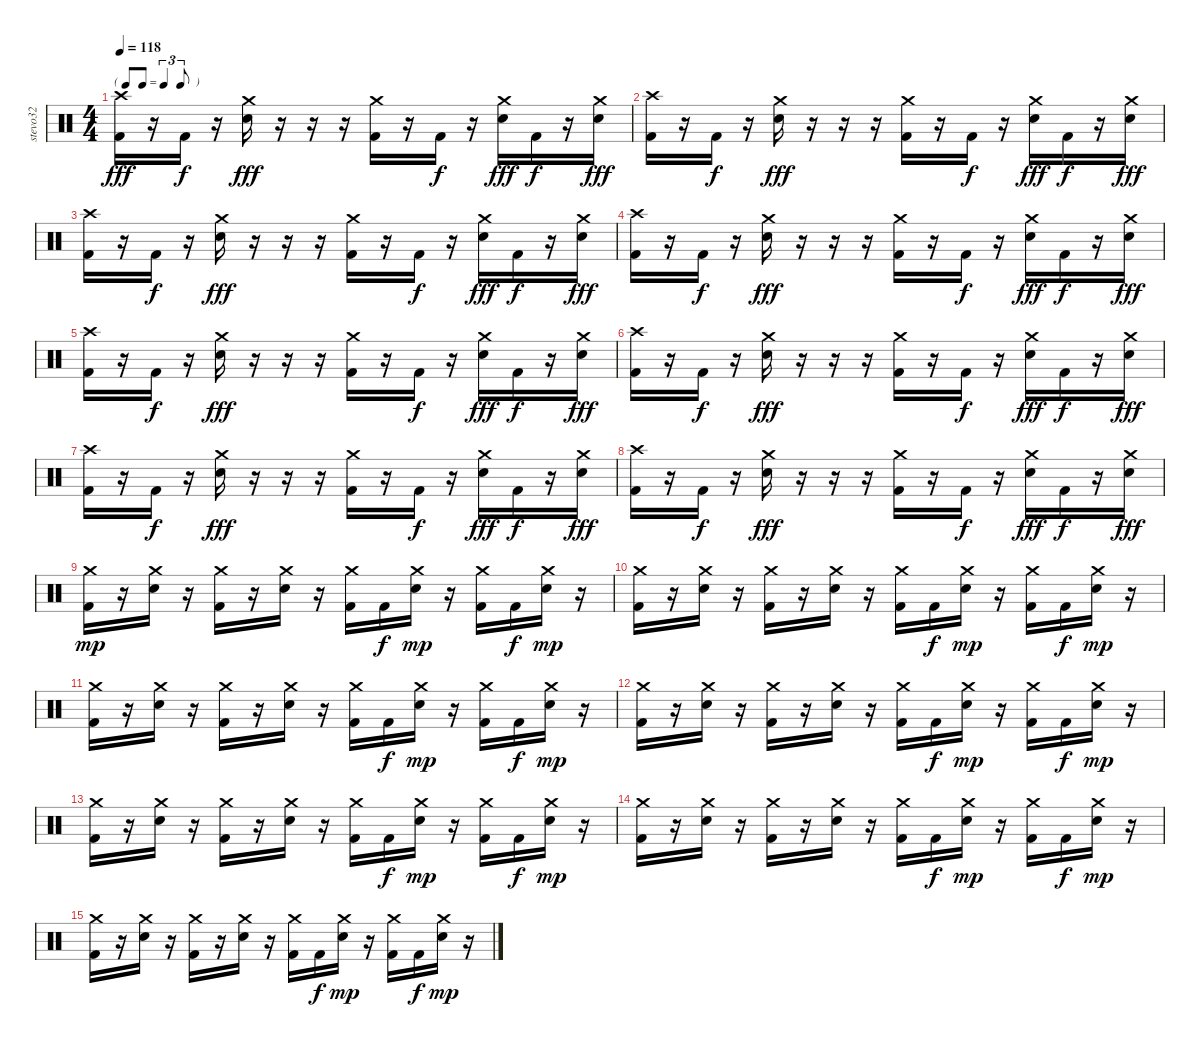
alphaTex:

\track ("stevo32" "stevo32") {instrument percussion}
\staff {score}
\articulation defaults
\ts (4 4)
\tf triplet8th
\tempo 118
\clef neutral
\ks c
("Crash high (hit)" "Kick (hit) 2").16{dy fff} r.16 "Kick (hit) 2".16{dy f} r.16 ("Crash medium (hit)" "Electric Snare (hit)").16{dy fff} r.16 r.16 r.16 ("Crash medium (hit)" "Kick (hit) 2").16 r.16 "Kick (hit) 2".16{dy f} r.16 ("Crash medium (hit)" "Electric Snare (hit)").16{dy fff} "Kick (hit) 2".16{dy f} r.16 ("Crash medium (hit)" "Electric Snare (hit)").16{dy fff} |
("Crash high (hit)" "Kick (hit) 2").16 r.16 "Kick (hit) 2".16{dy f} r.16 ("Crash medium (hit)" "Electric Snare (hit)").16{dy fff} r.16 r.16 r.16 ("Crash medium (hit)" "Kick (hit) 2").16 r.16 "Kick (hit) 2".16{dy f} r.16 ("Crash medium (hit)" "Electric Snare (hit)").16{dy fff} "Kick (hit) 2".16{dy f} r.16 ("Crash medium (hit)" "Electric Snare (hit)").16{dy fff} |
("Crash high (hit)" "Kick (hit) 2").16 r.16 "Kick (hit) 2".16{dy f} r.16 ("Crash medium (hit)" "Electric Snare (hit)").16{dy fff} r.16 r.16 r.16 ("Crash medium (hit)" "Kick (hit) 2").16 r.16 "Kick (hit) 2".16{dy f} r.16 ("Crash medium (hit)" "Electric Snare (hit)").16{dy fff} "Kick (hit) 2".16{dy f} r.16 ("Crash medium (hit)" "Electric Snare (hit)").16{dy fff} |
("Crash high (hit)" "Kick (hit) 2").16 r.16 "Kick (hit) 2".16{dy f} r.16 ("Crash medium (hit)" "Electric Snare (hit)").16{dy fff} r.16 r.16 r.16 ("Crash medium (hit)" "Kick (hit) 2").16 r.16 "Kick (hit) 2".16{dy f} r.16 ("Crash medium (hit)" "Electric Snare (hit)").16{dy fff} "Kick (hit) 2".16{dy f} r.16 ("Crash medium (hit)" "Electric Snare (hit)").16{dy fff} |
("Crash high (hit)" "Kick (hit) 2").16 r.16 "Kick (hit) 2".16{dy f} r.16 ("Crash medium (hit)" "Electric Snare (hit)").16{dy fff} r.16 r.16 r.16 ("Crash medium (hit)" "Kick (hit) 2").16 r.16 "Kick (hit) 2".16{dy f} r.16 ("Crash medium (hit)" "Electric Snare (hit)").16{dy fff} "Kick (hit) 2".16{dy f} r.16 ("Crash medium (hit)" "Electric Snare (hit)").16{dy fff} |
("Crash high (hit)" "Kick (hit) 2").16 r.16 "Kick (hit) 2".16{dy f} r.16 ("Crash medium (hit)" "Electric Snare (hit)").16{dy fff} r.16 r.16 r.16 ("Crash medium (hit)" "Kick (hit) 2").16 r.16 "Kick (hit) 2".16{dy f} r.16 ("Crash medium (hit)" "Electric Snare (hit)").16{dy fff} "Kick (hit) 2".16{dy f} r.16 ("Crash medium (hit)" "Electric Snare (hit)").16{dy fff} |
("Crash high (hit)" "Kick (hit) 2").16 r.16 "Kick (hit) 2".16{dy f} r.16 ("Crash medium (hit)" "Electric Snare (hit)").16{dy fff} r.16 r.16 r.16 ("Crash medium (hit)" "Kick (hit) 2").16 r.16 "Kick (hit) 2".16{dy f} r.16 ("Crash medium (hit)" "Electric Snare (hit)").16{dy fff} "Kick (hit) 2".16{dy f} r.16 ("Crash medium (hit)" "Electric Snare (hit)").16{dy fff} |
("Crash high (hit)" "Kick (hit) 2").16 r.16 "Kick (hit) 2".16{dy f} r.16 ("Crash medium (hit)" "Electric Snare (hit)").16{dy fff} r.16 r.16 r.16 ("Crash medium (hit)" "Kick (hit) 2").16 r.16 "Kick (hit) 2".16{dy f} r.16 ("Crash medium (hit)" "Electric Snare (hit)").16{dy fff} "Kick (hit) 2".16{dy f} r.16 ("Crash medium (hit)" "Electric Snare (hit)").16{dy fff} |
("Crash medium (hit)" "Kick (hit) 2").16{dy mp} r.16 ("Crash medium (hit)" "Electric Snare (hit)").16 r.16 ("Crash medium (hit)" "Kick (hit) 2").16 r.16 ("Crash medium (hit)" "Electric Snare (hit)").16 r.16 ("Crash medium (hit)" "Kick (hit) 2").16 "Kick (hit) 2".16{dy f} ("Crash medium (hit)" "Electric Snare (hit)").16{dy mp} r.16 ("Crash medium (hit)" "Kick (hit) 2").16 "Kick (hit) 2".16{dy f} ("Crash medium (hit)" "Electric Snare (hit)").16{dy mp} r.16 |
("Crash medium (hit)" "Kick (hit) 2").16 r.16 ("Crash medium (hit)" "Electric Snare (hit)").16 r.16 ("Crash medium (hit)" "Kick (hit) 2").16 r.16 ("Crash medium (hit)" "Electric Snare (hit)").16 r.16 ("Crash medium (hit)" "Kick (hit) 2").16 "Kick (hit) 2".16{dy f} ("Crash medium (hit)" "Electric Snare (hit)").16{dy mp} r.16 ("Crash medium (hit)" "Kick (hit) 2").16 "Kick (hit) 2".16{dy f} ("Crash medium (hit)" "Electric Snare (hit)").16{dy mp} r.16 |
("Crash medium (hit)" "Kick (hit) 2").16 r.16 ("Crash medium (hit)" "Electric Snare (hit)").16 r.16 ("Crash medium (hit)" "Kick (hit) 2").16 r.16 ("Crash medium (hit)" "Electric Snare (hit)").16 r.16 ("Crash medium (hit)" "Kick (hit) 2").16 "Kick (hit) 2".16{dy f} ("Crash medium (hit)" "Electric Snare (hit)").16{dy mp} r.16 ("Crash medium (hit)" "Kick (hit) 2").16 "Kick (hit) 2".16{dy f} ("Crash medium (hit)" "Electric Snare (hit)").16{dy mp} r.16 |
("Crash medium (hit)" "Kick (hit) 2").16 r.16 ("Crash medium (hit)" "Electric Snare (hit)").16 r.16 ("Crash medium (hit)" "Kick (hit) 2").16 r.16 ("Crash medium (hit)" "Electric Snare (hit)").16 r.16 ("Crash medium (hit)" "Kick (hit) 2").16 "Kick (hit) 2".16{dy f} ("Crash medium (hit)" "Electric Snare (hit)").16{dy mp} r.16 ("Crash medium (hit)" "Kick (hit) 2").16 "Kick (hit) 2".16{dy f} ("Crash medium (hit)" "Electric Snare (hit)").16{dy mp} r.16 |
("Crash medium (hit)" "Kick (hit) 2").16 r.16 ("Crash medium (hit)" "Electric Snare (hit)").16 r.16 ("Crash medium (hit)" "Kick (hit) 2").16 r.16 ("Crash medium (hit)" "Electric Snare (hit)").16 r.16 ("Crash medium (hit)" "Kick (hit) 2").16 "Kick (hit) 2".16{dy f} ("Crash medium (hit)" "Electric Snare (hit)").16{dy mp} r.16 ("Crash medium (hit)" "Kick (hit) 2").16 "Kick (hit) 2".16{dy f} ("Crash medium (hit)" "Electric Snare (hit)").16{dy mp} r.16 |
("Crash medium (hit)" "Kick (hit) 2").16 r.16 ("Crash medium (hit)" "Electric Snare (hit)").16 r.16 ("Crash medium (hit)" "Kick (hit) 2").16 r.16 ("Crash medium (hit)" "Electric Snare (hit)").16 r.16 ("Crash medium (hit)" "Kick (hit) 2").16 "Kick (hit) 2".16{dy f} ("Crash medium (hit)" "Electric Snare (hit)").16{dy mp} r.16 ("Crash medium (hit)" "Kick (hit) 2").16 "Kick (hit) 2".16{dy f} ("Crash medium (hit)" "Electric Snare (hit)").16{dy mp} r.16 |
("Crash medium (hit)" "Kick (hit) 2").16 r.16 ("Crash medium (hit)" "Electric Snare (hit)").16 r.16 ("Crash medium (hit)" "Kick (hit) 2").16 r.16 ("Crash medium (hit)" "Electric Snare (hit)").16 r.16 ("Crash medium (hit)" "Kick (hit) 2").16 "Kick (hit) 2".16{dy f} ("Crash medium (hit)" "Electric Snare (hit)").16{dy mp} r.16 ("Crash medium (hit)" "Kick (hit) 2").16 "Kick (hit) 2".16{dy f} ("Crash medium (hit)" "Electric Snare (hit)").16{dy mp} r.16
